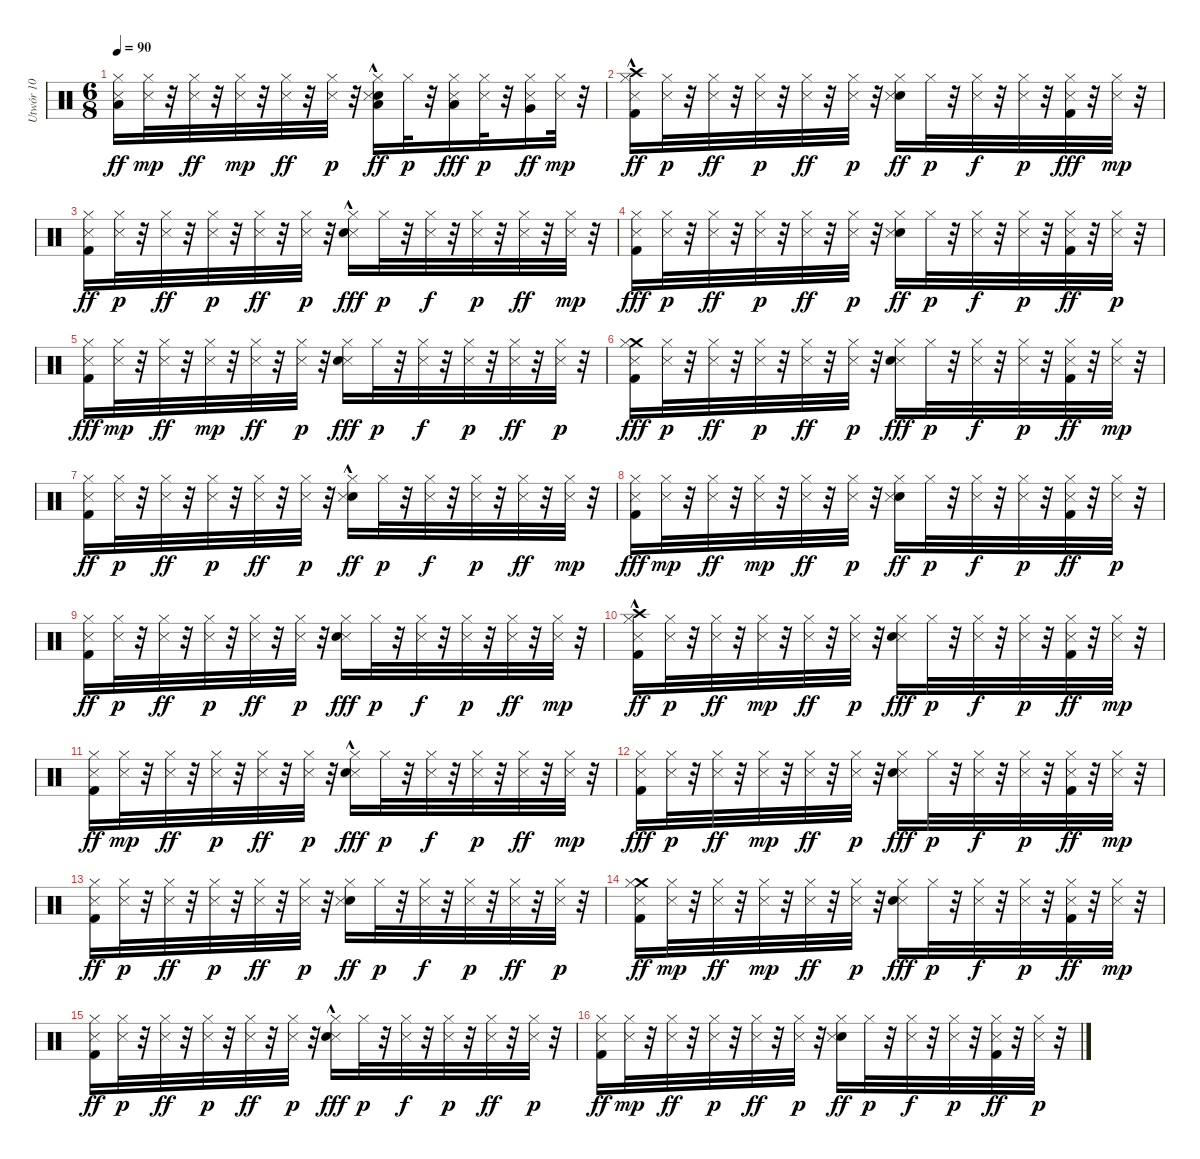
\track ("Utwór 10" "Utwór 10") {instrument percussion}
\staff {score}
\articulation defaults
\ts (6 8)
\tempo 90
\clef neutral
\ks c
("Hi-Hat (closed)" "Snare (side stick) 3" "Low Floor Tom (hit)").16{dy ff} ("Hi-Hat (closed)" "Snare (side stick) 3").32{dy mp} r.32 ("Hi-Hat (closed)" "Snare (side stick) 3").32{dy ff} r.32 ("Hi-Hat (closed)" "Snare (side stick) 3").32{dy mp} r.32 ("Hi-Hat (closed)" "Snare (side stick) 3").32{dy ff} r.32 ("Hi-Hat (closed)" "Snare (side stick) 3").32{dy p} r.32 ("Snare (hit) 2"{hac} "Snare (side stick) 3" "Low Floor Tom (hit)"{hac} "Hi-Hat (closed)").16{dy ff} "Hi-Hat (closed)".32{dy p} r.32 ("Hi-Hat (closed)" "Snare (side stick) 3" "Low Tom (hit)").16{dy fff} ("Hi-Hat (closed)" "Snare (side stick) 3").32{dy p} r.32 ("Very Low Tom (hit)" "Hi-Hat (closed)" "Snare (side stick) 3").16{dy ff} ("Hi-Hat (closed)" "Snare (side stick) 3").32{dy mp} r.32 |
("Snare (side stick) 3" "Hi-Hat (closed)" "Kick (hit) 2" "Crash high (hit)"{hac}).16{dy ff} ("Snare (side stick) 3" "Hi-Hat (closed)").32{dy p} r.32 ("Hi-Hat (closed)" "Snare (side stick) 3").32{dy ff} r.32 ("Snare (side stick) 3" "Hi-Hat (closed)").32{dy p} r.32 ("Hi-Hat (closed)" "Snare (side stick) 3").32{dy ff} r.32 ("Hi-Hat (closed)" "Snare (side stick) 3").32{dy p} r.32 ("Snare (hit) 2" "Snare (side stick) 3" "Hi-Hat (closed)").16{dy ff} "Hi-Hat (closed)".32{dy p} r.32 ("Hi-Hat (closed)" "Snare (side stick) 3").32{dy f} r.32 ("Hi-Hat (closed)" "Snare (side stick) 3").32{dy p} r.32 ("Hi-Hat (closed)" "Snare (side stick) 3" "Kick (hit) 2").32{dy fff} r.32 ("Hi-Hat (closed)" "Snare (side stick) 3").32{dy mp} r.32 |
("Hi-Hat (closed)" "Kick (hit) 2" "Snare (side stick) 3").16{dy ff} ("Snare (side stick) 3" "Hi-Hat (closed)").32{dy p} r.32 ("Snare (side stick) 3" "Hi-Hat (closed)").32{dy ff} r.32 ("Snare (side stick) 3" "Hi-Hat (closed)").32{dy p} r.32 ("Hi-Hat (closed)" "Snare (side stick) 3").32{dy ff} r.32 ("Snare (side stick) 3" "Hi-Hat (closed)").32{dy p} r.32 ("Snare (side stick) 3" "Snare (hit) 2"{hac} "Hi-Hat (closed)").16{dy fff} "Hi-Hat (closed)".32{dy p} r.32 ("Hi-Hat (closed)" "Snare (side stick) 3").32{dy f} r.32 ("Snare (side stick) 3" "Hi-Hat (closed)").32{dy p} r.32 ("Hi-Hat (closed)" "Snare (side stick) 3").32{dy ff} r.32 ("Hi-Hat (closed)" "Snare (side stick) 3").32{dy mp} r.32 |
("Hi-Hat (closed)" "Snare (side stick) 3" "Kick (hit) 2").16{dy fff} ("Snare (side stick) 3" "Hi-Hat (closed)").32{dy p} r.32 ("Snare (side stick) 3" "Hi-Hat (closed)").32{dy ff} r.32 ("Snare (side stick) 3" "Hi-Hat (closed)").32{dy p} r.32 ("Snare (side stick) 3" "Hi-Hat (closed)").32{dy ff} r.32 ("Hi-Hat (closed)" "Snare (side stick) 3").32{dy p} r.32 ("Hi-Hat (closed)" "Snare (hit) 2" "Snare (side stick) 3").16{dy ff} "Hi-Hat (closed)".32{dy p} r.32 ("Hi-Hat (closed)" "Snare (side stick) 3").32{dy f} r.32 ("Snare (side stick) 3" "Hi-Hat (closed)").32{dy p} r.32 ("Kick (hit) 2" "Snare (side stick) 3" "Hi-Hat (closed)").32{dy ff} r.32 ("Snare (side stick) 3" "Hi-Hat (closed)").32{dy p} r.32 |
("Hi-Hat (closed)" "Snare (side stick) 3" "Kick (hit) 2").16{dy fff} ("Hi-Hat (closed)" "Snare (side stick) 3").32{dy mp} r.32 ("Snare (side stick) 3" "Hi-Hat (closed)").32{dy ff} r.32 ("Hi-Hat (closed)" "Snare (side stick) 3").32{dy mp} r.32 ("Snare (side stick) 3" "Hi-Hat (closed)").32{dy ff} r.32 ("Snare (side stick) 3" "Hi-Hat (closed)").32{dy p} r.32 ("Snare (side stick) 3" "Hi-Hat (closed)" "Snare (hit) 2").16{dy fff} "Hi-Hat (closed)".32{dy p} r.32 ("Snare (side stick) 3" "Hi-Hat (closed)").32{dy f} r.32 ("Hi-Hat (closed)" "Snare (side stick) 3").32{dy p} r.32 ("Snare (side stick) 3" "Hi-Hat (closed)").32{dy ff} r.32 ("Snare (side stick) 3" "Hi-Hat (closed)").32{dy p} r.32 |
("Crash medium (hit)" "Snare (side stick) 3" "Hi-Hat (closed)" "Kick (hit) 2").16{dy fff} ("Snare (side stick) 3" "Hi-Hat (closed)").32{dy p} r.32 ("Snare (side stick) 3" "Hi-Hat (closed)").32{dy ff} r.32 ("Snare (side stick) 3" "Hi-Hat (closed)").32{dy p} r.32 ("Snare (side stick) 3" "Hi-Hat (closed)").32{dy ff} r.32 ("Snare (side stick) 3" "Hi-Hat (closed)").32{dy p} r.32 ("Snare (side stick) 3" "Hi-Hat (closed)" "Snare (hit) 2").16{dy fff} "Hi-Hat (closed)".32{dy p} r.32 ("Snare (side stick) 3" "Hi-Hat (closed)").32{dy f} r.32 ("Snare (side stick) 3" "Hi-Hat (closed)").32{dy p} r.32 ("Kick (hit) 2" "Snare (side stick) 3" "Hi-Hat (closed)").32{dy ff} r.32 ("Hi-Hat (closed)" "Snare (side stick) 3").32{dy mp} r.32 |
("Snare (side stick) 3" "Kick (hit) 2" "Hi-Hat (closed)").16{dy ff} ("Snare (side stick) 3" "Hi-Hat (closed)").32{dy p} r.32 ("Snare (side stick) 3" "Hi-Hat (closed)").32{dy ff} r.32 ("Snare (side stick) 3" "Hi-Hat (closed)").32{dy p} r.32 ("Snare (side stick) 3" "Hi-Hat (closed)").32{dy ff} r.32 ("Snare (side stick) 3" "Hi-Hat (closed)").32{dy p} r.32 ("Snare (hit) 2"{hac} "Hi-Hat (closed)" "Snare (side stick) 3").16{dy ff} "Hi-Hat (closed)".32{dy p} r.32 ("Hi-Hat (closed)" "Snare (side stick) 3").32{dy f} r.32 ("Hi-Hat (closed)" "Snare (side stick) 3").32{dy p} r.32 ("Snare (side stick) 3" "Hi-Hat (closed)").32{dy ff} r.32 ("Hi-Hat (closed)" "Snare (side stick) 3").32{dy mp} r.32 |
("Hi-Hat (closed)" "Snare (side stick) 3" "Kick (hit) 2").16{dy fff} ("Hi-Hat (closed)" "Snare (side stick) 3").32{dy mp} r.32 ("Snare (side stick) 3" "Hi-Hat (closed)").32{dy ff} r.32 ("Hi-Hat (closed)" "Snare (side stick) 3").32{dy mp} r.32 ("Snare (side stick) 3" "Hi-Hat (closed)").32{dy ff} r.32 ("Hi-Hat (closed)" "Snare (side stick) 3").32{dy p} r.32 ("Hi-Hat (closed)" "Snare (hit) 2" "Snare (side stick) 3").16{dy ff} "Hi-Hat (closed)".32{dy p} r.32 ("Snare (side stick) 3" "Hi-Hat (closed)").32{dy f} r.32 ("Snare (side stick) 3" "Hi-Hat (closed)").32{dy p} r.32 ("Kick (hit) 2" "Hi-Hat (closed)" "Snare (side stick) 3").32{dy ff} r.32 ("Snare (side stick) 3" "Hi-Hat (closed)").32{dy p} r.32 |
("Kick (hit) 2" "Snare (side stick) 3" "Hi-Hat (closed)").16{dy ff} ("Snare (side stick) 3" "Hi-Hat (closed)").32{dy p} r.32 ("Snare (side stick) 3" "Hi-Hat (closed)").32{dy ff} r.32 ("Snare (side stick) 3" "Hi-Hat (closed)").32{dy p} r.32 ("Snare (side stick) 3" "Hi-Hat (closed)").32{dy ff} r.32 ("Snare (side stick) 3" "Hi-Hat (closed)").32{dy p} r.32 ("Snare (side stick) 3" "Snare (hit) 2" "Hi-Hat (closed)").16{dy fff} "Hi-Hat (closed)".32{dy p} r.32 ("Snare (side stick) 3" "Hi-Hat (closed)").32{dy f} r.32 ("Hi-Hat (closed)" "Snare (side stick) 3").32{dy p} r.32 ("Hi-Hat (closed)" "Snare (side stick) 3").32{dy ff} r.32 ("Hi-Hat (closed)" "Snare (side stick) 3").32{dy mp} r.32 |
("Kick (hit) 2" "Snare (side stick) 3" "Crash high (hit)"{hac} "Hi-Hat (closed)").16{dy ff} ("Snare (side stick) 3" "Hi-Hat (closed)").32{dy p} r.32 ("Hi-Hat (closed)" "Snare (side stick) 3").32{dy ff} r.32 ("Hi-Hat (closed)" "Snare (side stick) 3").32{dy mp} r.32 ("Hi-Hat (closed)" "Snare (side stick) 3").32{dy ff} r.32 ("Snare (side stick) 3" "Hi-Hat (closed)").32{dy p} r.32 ("Hi-Hat (closed)" "Snare (side stick) 3" "Snare (hit) 2").16{dy fff} "Hi-Hat (closed)".32{dy p} r.32 ("Snare (side stick) 3" "Hi-Hat (closed)").32{dy f} r.32 ("Snare (side stick) 3" "Hi-Hat (closed)").32{dy p} r.32 ("Kick (hit) 2" "Snare (side stick) 3" "Hi-Hat (closed)").32{dy ff} r.32 ("Hi-Hat (closed)" "Snare (side stick) 3").32{dy mp} r.32 |
("Hi-Hat (closed)" "Kick (hit) 2" "Snare (side stick) 3").16{dy ff} ("Hi-Hat (closed)" "Snare (side stick) 3").32{dy mp} r.32 ("Hi-Hat (closed)" "Snare (side stick) 3").32{dy ff} r.32 ("Snare (side stick) 3" "Hi-Hat (closed)").32{dy p} r.32 ("Snare (side stick) 3" "Hi-Hat (closed)").32{dy ff} r.32 ("Hi-Hat (closed)" "Snare (side stick) 3").32{dy p} r.32 ("Snare (side stick) 3" "Snare (hit) 2"{hac} "Hi-Hat (closed)").16{dy fff} "Hi-Hat (closed)".32{dy p} r.32 ("Hi-Hat (closed)" "Snare (side stick) 3").32{dy f} r.32 ("Snare (side stick) 3" "Hi-Hat (closed)").32{dy p} r.32 ("Hi-Hat (closed)" "Snare (side stick) 3").32{dy ff} r.32 ("Hi-Hat (closed)" "Snare (side stick) 3").32{dy mp} r.32 |
("Snare (side stick) 3" "Hi-Hat (closed)" "Kick (hit) 2").16{dy fff} ("Snare (side stick) 3" "Hi-Hat (closed)").32{dy p} r.32 ("Hi-Hat (closed)" "Snare (side stick) 3").32{dy ff} r.32 ("Hi-Hat (closed)" "Snare (side stick) 3").32{dy mp} r.32 ("Hi-Hat (closed)" "Snare (side stick) 3").32{dy ff} r.32 ("Snare (side stick) 3" "Hi-Hat (closed)").32{dy p} r.32 ("Snare (side stick) 3" "Hi-Hat (closed)" "Snare (hit) 2").16{dy fff} "Hi-Hat (closed)".32{dy p} r.32 ("Snare (side stick) 3" "Hi-Hat (closed)").32{dy f} r.32 ("Snare (side stick) 3" "Hi-Hat (closed)").32{dy p} r.32 ("Hi-Hat (closed)" "Kick (hit) 2" "Snare (side stick) 3").32{dy ff} r.32 ("Hi-Hat (closed)" "Snare (side stick) 3").32{dy mp} r.32 |
("Hi-Hat (closed)" "Kick (hit) 2" "Snare (side stick) 3").16{dy ff} ("Snare (side stick) 3" "Hi-Hat (closed)").32{dy p} r.32 ("Hi-Hat (closed)" "Snare (side stick) 3").32{dy ff} r.32 ("Snare (side stick) 3" "Hi-Hat (closed)").32{dy p} r.32 ("Hi-Hat (closed)" "Snare (side stick) 3").32{dy ff} r.32 ("Hi-Hat (closed)" "Snare (side stick) 3").32{dy p} r.32 ("Snare (hit) 2" "Hi-Hat (closed)" "Snare (side stick) 3").16{dy ff} "Hi-Hat (closed)".32{dy p} r.32 ("Snare (side stick) 3" "Hi-Hat (closed)").32{dy f} r.32 ("Hi-Hat (closed)" "Snare (side stick) 3").32{dy p} r.32 ("Hi-Hat (closed)" "Snare (side stick) 3").32{dy ff} r.32 ("Snare (side stick) 3" "Hi-Hat (closed)").32{dy p} r.32 |
("Kick (hit) 2" "Crash medium (hit)" "Hi-Hat (closed)" "Snare (side stick) 3").16{dy ff} ("Hi-Hat (closed)" "Snare (side stick) 3").32{dy mp} r.32 ("Snare (side stick) 3" "Hi-Hat (closed)").32{dy ff} r.32 ("Hi-Hat (closed)" "Snare (side stick) 3").32{dy mp} r.32 ("Snare (side stick) 3" "Hi-Hat (closed)").32{dy ff} r.32 ("Snare (side stick) 3" "Hi-Hat (closed)").32{dy p} r.32 ("Snare (side stick) 3" "Hi-Hat (closed)" "Snare (hit) 2").16{dy fff} "Hi-Hat (closed)".32{dy p} r.32 ("Hi-Hat (closed)" "Snare (side stick) 3").32{dy f} r.32 ("Snare (side stick) 3" "Hi-Hat (closed)").32{dy p} r.32 ("Kick (hit) 2" "Snare (side stick) 3" "Hi-Hat (closed)").32{dy ff} r.32 ("Hi-Hat (closed)" "Snare (side stick) 3").32{dy mp} r.32 |
("Kick (hit) 2" "Snare (side stick) 3" "Hi-Hat (closed)").16{dy ff} ("Snare (side stick) 3" "Hi-Hat (closed)").32{dy p} r.32 ("Snare (side stick) 3" "Hi-Hat (closed)").32{dy ff} r.32 ("Snare (side stick) 3" "Hi-Hat (closed)").32{dy p} r.32 ("Hi-Hat (closed)" "Snare (side stick) 3").32{dy ff} r.32 ("Snare (side stick) 3" "Hi-Hat (closed)").32{dy p} r.32 ("Snare (side stick) 3" "Snare (hit) 2"{hac} "Hi-Hat (closed)").16{dy fff} "Hi-Hat (closed)".32{dy p} r.32 ("Snare (side stick) 3" "Hi-Hat (closed)").32{dy f} r.32 ("Snare (side stick) 3" "Hi-Hat (closed)").32{dy p} r.32 ("Snare (side stick) 3" "Hi-Hat (closed)").32{dy ff} r.32 ("Snare (side stick) 3" "Hi-Hat (closed)").32{dy p} r.32 |
("Hi-Hat (closed)" "Kick (hit) 2" "Snare (side stick) 3").16{dy ff} ("Hi-Hat (closed)" "Snare (side stick) 3").32{dy mp} r.32 ("Hi-Hat (closed)" "Snare (side stick) 3").32{dy ff} r.32 ("Snare (side stick) 3" "Hi-Hat (closed)").32{dy p} r.32 ("Hi-Hat (closed)" "Snare (side stick) 3").32{dy ff} r.32 ("Snare (side stick) 3" "Hi-Hat (closed)").32{dy p} r.32 ("Hi-Hat (closed)" "Snare (hit) 2" "Snare (side stick) 3").16{dy ff} "Hi-Hat (closed)".32{dy p} r.32 ("Hi-Hat (closed)" "Snare (side stick) 3").32{dy f} r.32 ("Hi-Hat (closed)" "Snare (side stick) 3").32{dy p} r.32 ("Kick (hit) 2" "Hi-Hat (closed)" "Snare (side stick) 3").32{dy ff} r.32 ("Snare (side stick) 3" "Hi-Hat (closed)").32{dy p} r.32
